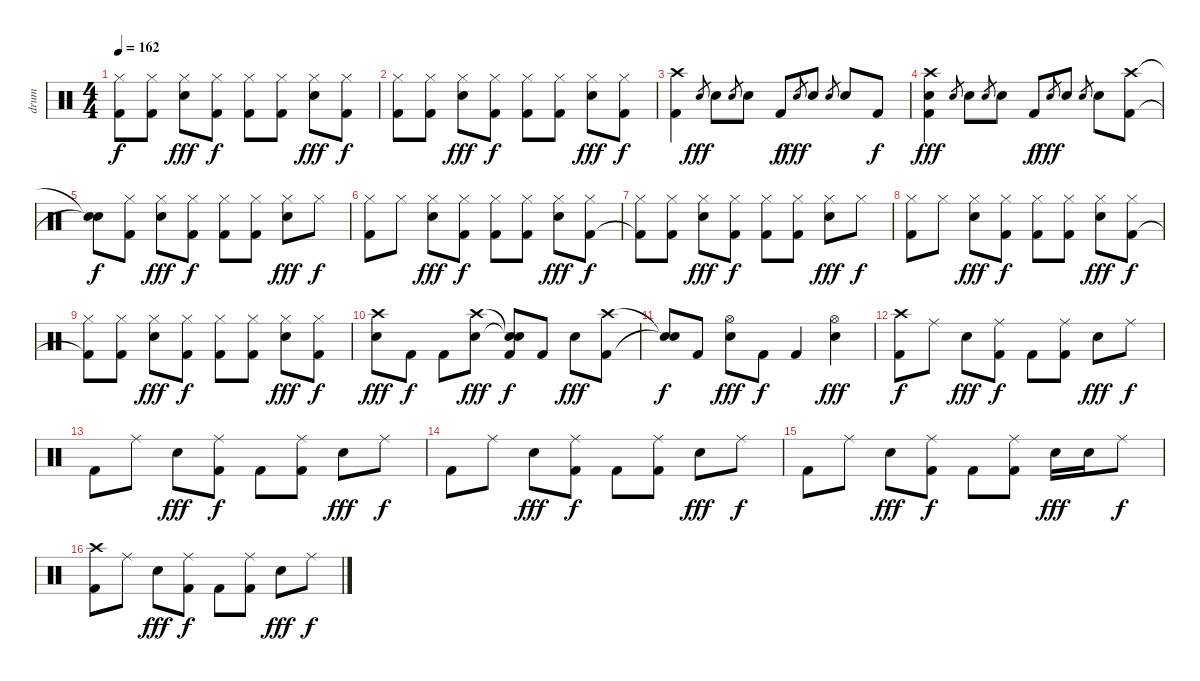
\track ("drum" "drum") {instrument percussion}
\staff {score}
\articulation defaults
\ts (4 4)
\tempo 162
\clef neutral
\ks c
("Hi-Hat (closed)" "Kick (hit) 2").8{dy f} ("Hi-Hat (closed)" "Kick (hit) 2").8 ("Hi-Hat (closed)" "Electric Snare (hit)").8{dy fff} ("Hi-Hat (closed)" "Kick (hit) 2").8{dy f} ("Hi-Hat (closed)" "Kick (hit) 2").8 ("Hi-Hat (closed)" "Kick (hit) 2").8 ("Hi-Hat (closed)" "Electric Snare (hit)").8{dy fff} ("Hi-Hat (closed)" "Kick (hit) 2").8{dy f} |
("Hi-Hat (closed)" "Kick (hit) 2").8 ("Hi-Hat (closed)" "Kick (hit) 2").8 ("Hi-Hat (closed)" "Electric Snare (hit)").8{dy fff} ("Hi-Hat (closed)" "Kick (hit) 2").8{dy f} ("Hi-Hat (closed)" "Kick (hit) 2").8 ("Hi-Hat (closed)" "Kick (hit) 2").8 ("Hi-Hat (closed)" "Electric Snare (hit)").8{dy fff} ("Hi-Hat (closed)" "Kick (hit) 2").8{dy f} |
("Crash high (hit)" "Kick (hit) 2").4 "Electric Snare (hit)".8{gr dy fff} "Electric Snare (hit)".8 "Electric Snare (hit)".8{gr} "Electric Snare (hit)".8 "Kick (hit) 2".8{dy f} "Electric Snare (hit)".8{gr dy fff} "Electric Snare (hit)".8 "Electric Snare (hit)".8{gr} "Electric Snare (hit)".8 "Kick (hit) 2".8{dy f} |
("Crash high (hit)" "Electric Snare (hit)" "Kick (hit) 2").4{dy fff} "Electric Snare (hit)".8{gr} "Electric Snare (hit)".8 "Electric Snare (hit)".8{gr} "Electric Snare (hit)".8 "Kick (hit) 2".8{dy f} "Electric Snare (hit)".8{gr dy fff} "Electric Snare (hit)".8 "Electric Snare (hit)".8{gr} "Electric Snare (hit)".8 ("Crash high (hit)" "Kick (hit) 2").8 |
("Snare (hit)"{t} "Snare (hit)"{t}).8{dy f} ("Hi-Hat (closed)" "Kick (hit) 2").8 ("Hi-Hat (closed)" "Electric Snare (hit)").8{dy fff} ("Hi-Hat (closed)" "Kick (hit) 2").8{dy f} ("Hi-Hat (closed)" "Kick (hit) 2").8 ("Hi-Hat (closed)" "Kick (hit) 2").8 ("Hi-Hat (closed)" "Electric Snare (hit)").8{dy fff} "Hi-Hat (closed)".8{dy f} |
("Hi-Hat (closed)" "Kick (hit) 2").8 "Hi-Hat (closed)".8 ("Hi-Hat (closed)" "Electric Snare (hit)").8{dy fff} ("Hi-Hat (closed)" "Kick (hit) 2").8{dy f} ("Hi-Hat (closed)" "Kick (hit) 2").8 ("Hi-Hat (closed)" "Kick (hit) 2").8 ("Hi-Hat (closed)" "Electric Snare (hit)").8{dy fff} ("Hi-Hat (closed)" "Kick (hit) 2").8{dy f} |
("Hi-Hat (closed)" "Kick (hit) 2"{t}).8 ("Hi-Hat (closed)" "Kick (hit) 2").8 ("Hi-Hat (closed)" "Electric Snare (hit)").8{dy fff} ("Hi-Hat (closed)" "Kick (hit) 2").8{dy f} ("Hi-Hat (closed)" "Kick (hit) 2").8 ("Hi-Hat (closed)" "Kick (hit) 2").8 ("Hi-Hat (closed)" "Electric Snare (hit)").8{dy fff} "Hi-Hat (closed)".8{dy f} |
("Hi-Hat (closed)" "Kick (hit) 2").8 "Hi-Hat (closed)".8 ("Hi-Hat (closed)" "Electric Snare (hit)").8{dy fff} ("Hi-Hat (closed)" "Kick (hit) 2").8{dy f} ("Hi-Hat (closed)" "Kick (hit) 2").8 ("Hi-Hat (closed)" "Kick (hit) 2").8 ("Hi-Hat (closed)" "Electric Snare (hit)").8{dy fff} ("Hi-Hat (closed)" "Kick (hit) 2").8{dy f} |
("Hi-Hat (closed)" "Kick (hit) 2"{t}).8 ("Hi-Hat (closed)" "Kick (hit) 2").8 ("Hi-Hat (closed)" "Electric Snare (hit)").8{dy fff} ("Hi-Hat (closed)" "Kick (hit) 2").8{dy f} ("Hi-Hat (closed)" "Kick (hit) 2").8 ("Hi-Hat (closed)" "Kick (hit) 2").8 ("Hi-Hat (closed)" "Electric Snare (hit)").8{dy fff} ("Hi-Hat (closed)" "Kick (hit) 2").8{dy f} |
("Crash high (hit)" "Electric Snare (hit)").8{dy fff} "Kick (hit) 2".8{dy f} "Kick (hit) 2".8 ("Crash high (hit)" "Electric Snare (hit)").8{dy fff} ("Snare (hit)"{t} "Snare (hit)"{t} "Kick (hit) 2").8{dy f} "Kick (hit) 2".8 "Electric Snare (hit)".8{dy fff} ("Crash high (hit)" "Kick (hit) 2").8 |
("Snare (hit)"{t} "Snare (hit)"{t}).8{dy f} "Kick (hit) 2".8 ("Hi-Hat (open)" "Electric Snare (hit)").8{dy fff} "Kick (hit) 2".8{dy f} "Kick (hit) 2".4 ("Hi-Hat (open)" "Electric Snare (hit)").4{dy fff} |
("Crash high (hit)" "Kick (hit) 2").8{dy f} "Ride (middle)".8 "Electric Snare (hit)".8{dy fff} ("Ride (middle)" "Kick (hit) 2").8{dy f} "Kick (hit) 2".8 ("Ride (middle)" "Kick (hit) 2").8 "Electric Snare (hit)".8{dy fff} "Ride (middle)".8{dy f} |
"Kick (hit) 2".8 "Ride (middle)".8 "Electric Snare (hit)".8{dy fff} ("Ride (middle)" "Kick (hit) 2").8{dy f} "Kick (hit) 2".8 ("Ride (middle)" "Kick (hit) 2").8 "Electric Snare (hit)".8{dy fff} "Ride (middle)".8{dy f} |
"Kick (hit) 2".8 "Ride (middle)".8 "Electric Snare (hit)".8{dy fff} ("Ride (middle)" "Kick (hit) 2").8{dy f} "Kick (hit) 2".8 ("Ride (middle)" "Kick (hit) 2").8 "Electric Snare (hit)".8{dy fff} "Ride (middle)".8{dy f} |
"Kick (hit) 2".8 "Ride (middle)".8 "Electric Snare (hit)".8{dy fff} ("Ride (middle)" "Kick (hit) 2").8{dy f} "Kick (hit) 2".8 ("Ride (middle)" "Kick (hit) 2").8 "Electric Snare (hit)".16{dy fff} "Electric Snare (hit)".16 "Ride (middle)".8{dy f} |
("Crash high (hit)" "Kick (hit) 2").8 "Ride (middle)".8 "Electric Snare (hit)".8{dy fff} ("Ride (middle)" "Kick (hit) 2").8{dy f} "Kick (hit) 2".8 ("Ride (middle)" "Kick (hit) 2").8 "Electric Snare (hit)".8{dy fff} "Ride (middle)".8{dy f}
